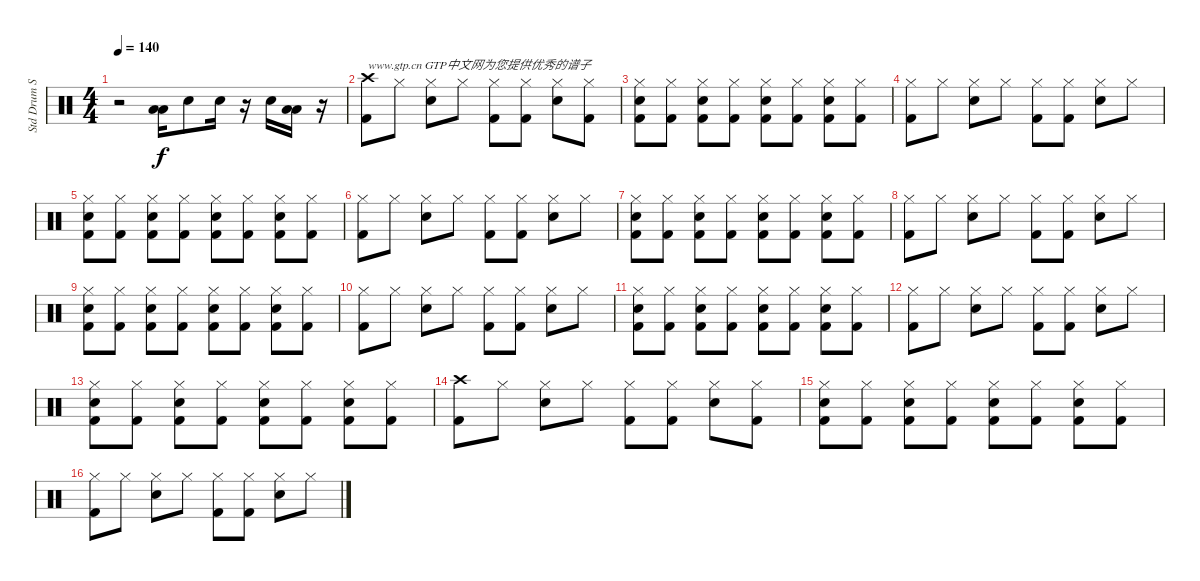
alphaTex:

\track ("Std Drum Set" "Std Drum S") {instrument percussion}
\staff {score}
\articulation defaults
\ts (4 4)
\tempo 140
\clef neutral
\ks c
r.2{dy f} ("Low Floor Tom (hit)" "Low Tom (hit)").16 "Snare (hit) 2".8 "Snare (hit) 2".16 r.16 "Snare (hit) 2".16 ("Low Floor Tom (hit)" "Low Tom (hit)").16 r.16 |
("Kick (hit) 2" "Crash high (hit)").8{txt "www.gtp.cn GTP中文网为您提供优秀的谱子"} "Hi-Hat (closed)".8 ("Snare (hit) 2" "Hi-Hat (closed)").8 "Hi-Hat (closed)".8 ("Kick (hit) 2" "Hi-Hat (closed)").8 ("Kick (hit) 2" "Hi-Hat (closed)").8 ("Hi-Hat (closed)" "Snare (hit) 2").8 ("Hi-Hat (closed)" "Kick (hit) 2").8 |
("Hi-Hat (closed)" "Snare (hit) 2" "Kick (hit) 2").8 ("Kick (hit) 2" "Hi-Hat (closed)").8 ("Kick (hit) 2" "Hi-Hat (closed)" "Snare (hit) 2").8 ("Kick (hit) 2" "Hi-Hat (closed)").8 ("Kick (hit) 2" "Hi-Hat (closed)" "Snare (hit) 2").8 ("Hi-Hat (closed)" "Kick (hit) 2").8 ("Hi-Hat (closed)" "Kick (hit) 2" "Snare (hit) 2").8 ("Hi-Hat (closed)" "Kick (hit) 2").8 |
("Kick (hit) 2" "Hi-Hat (closed)").8 "Hi-Hat (closed)".8 ("Hi-Hat (closed)" "Snare (hit) 2").8 "Hi-Hat (closed)".8 ("Kick (hit) 2" "Hi-Hat (closed)").8 ("Hi-Hat (closed)" "Kick (hit) 2").8 ("Hi-Hat (closed)" "Snare (hit) 2").8 "Hi-Hat (closed)".8 |
("Hi-Hat (closed)" "Kick (hit) 2" "Snare (hit) 2").8 ("Kick (hit) 2" "Hi-Hat (closed)").8 ("Kick (hit) 2" "Hi-Hat (closed)" "Snare (hit) 2").8 ("Kick (hit) 2" "Hi-Hat (closed)").8 ("Kick (hit) 2" "Hi-Hat (closed)" "Snare (hit) 2").8 ("Kick (hit) 2" "Hi-Hat (closed)").8 ("Hi-Hat (closed)" "Snare (hit) 2" "Kick (hit) 2").8 ("Hi-Hat (closed)" "Kick (hit) 2").8 |
("Kick (hit) 2" "Hi-Hat (closed)").8 "Hi-Hat (closed)".8 ("Snare (hit) 2" "Hi-Hat (closed)").8 "Hi-Hat (closed)".8 ("Hi-Hat (closed)" "Kick (hit) 2").8 ("Kick (hit) 2" "Hi-Hat (closed)").8 ("Hi-Hat (closed)" "Snare (hit) 2").8 "Hi-Hat (closed)".8 |
("Kick (hit) 2" "Hi-Hat (closed)" "Snare (hit) 2").8 ("Hi-Hat (closed)" "Kick (hit) 2").8 ("Kick (hit) 2" "Hi-Hat (closed)" "Snare (hit) 2").8 ("Hi-Hat (closed)" "Kick (hit) 2").8 ("Kick (hit) 2" "Hi-Hat (closed)" "Snare (hit) 2").8 ("Kick (hit) 2" "Hi-Hat (closed)").8 ("Snare (hit) 2" "Hi-Hat (closed)" "Kick (hit) 2").8 ("Hi-Hat (closed)" "Kick (hit) 2").8 |
("Hi-Hat (closed)" "Kick (hit) 2").8 "Hi-Hat (closed)".8 ("Hi-Hat (closed)" "Snare (hit) 2").8 "Hi-Hat (closed)".8 ("Kick (hit) 2" "Hi-Hat (closed)").8 ("Kick (hit) 2" "Hi-Hat (closed)").8 ("Hi-Hat (closed)" "Snare (hit) 2").8 "Hi-Hat (closed)".8 |
("Kick (hit) 2" "Hi-Hat (closed)" "Snare (hit) 2").8 ("Hi-Hat (closed)" "Kick (hit) 2").8 ("Kick (hit) 2" "Hi-Hat (closed)" "Snare (hit) 2").8 ("Hi-Hat (closed)" "Kick (hit) 2").8 ("Snare (hit) 2" "Kick (hit) 2" "Hi-Hat (closed)").8 ("Hi-Hat (closed)" "Kick (hit) 2").8 ("Kick (hit) 2" "Hi-Hat (closed)" "Snare (hit) 2").8 ("Hi-Hat (closed)" "Kick (hit) 2").8 |
("Hi-Hat (closed)" "Kick (hit) 2").8 "Hi-Hat (closed)".8 ("Hi-Hat (closed)" "Snare (hit) 2").8 "Hi-Hat (closed)".8 ("Hi-Hat (closed)" "Kick (hit) 2").8 ("Hi-Hat (closed)" "Kick (hit) 2").8 ("Snare (hit) 2" "Hi-Hat (closed)").8 "Hi-Hat (closed)".8 |
("Kick (hit) 2" "Hi-Hat (closed)" "Snare (hit) 2").8 ("Kick (hit) 2" "Hi-Hat (closed)").8 ("Hi-Hat (closed)" "Snare (hit) 2" "Kick (hit) 2").8 ("Kick (hit) 2" "Hi-Hat (closed)").8 ("Hi-Hat (closed)" "Kick (hit) 2" "Snare (hit) 2").8 ("Kick (hit) 2" "Hi-Hat (closed)").8 ("Snare (hit) 2" "Hi-Hat (closed)" "Kick (hit) 2").8 ("Kick (hit) 2" "Hi-Hat (closed)").8 |
("Hi-Hat (closed)" "Kick (hit) 2").8 "Hi-Hat (closed)".8 ("Snare (hit) 2" "Hi-Hat (closed)").8 "Hi-Hat (closed)".8 ("Hi-Hat (closed)" "Kick (hit) 2").8 ("Kick (hit) 2" "Hi-Hat (closed)").8 ("Snare (hit) 2" "Hi-Hat (closed)").8 "Hi-Hat (closed)".8 |
("Kick (hit) 2" "Hi-Hat (closed)" "Snare (hit) 2").8 ("Hi-Hat (closed)" "Kick (hit) 2").8 ("Hi-Hat (closed)" "Kick (hit) 2" "Snare (hit) 2").8 ("Kick (hit) 2" "Hi-Hat (closed)").8 ("Hi-Hat (closed)" "Snare (hit) 2" "Kick (hit) 2").8 ("Hi-Hat (closed)" "Kick (hit) 2").8 ("Hi-Hat (closed)" "Kick (hit) 2" "Snare (hit) 2").8 ("Hi-Hat (closed)" "Kick (hit) 2").8 |
("Crash high (hit)" "Kick (hit) 2").8 "Hi-Hat (closed)".8 ("Snare (hit) 2" "Hi-Hat (closed)").8 "Hi-Hat (closed)".8 ("Hi-Hat (closed)" "Kick (hit) 2").8 ("Hi-Hat (closed)" "Kick (hit) 2").8 ("Snare (hit) 2" "Hi-Hat (closed)").8 ("Hi-Hat (closed)" "Kick (hit) 2").8 |
("Kick (hit) 2" "Snare (hit) 2" "Hi-Hat (closed)").8 ("Hi-Hat (closed)" "Kick (hit) 2").8 ("Kick (hit) 2" "Snare (hit) 2" "Hi-Hat (closed)").8 ("Hi-Hat (closed)" "Kick (hit) 2").8 ("Snare (hit) 2" "Kick (hit) 2" "Hi-Hat (closed)").8 ("Kick (hit) 2" "Hi-Hat (closed)").8 ("Kick (hit) 2" "Snare (hit) 2" "Hi-Hat (closed)").8 ("Kick (hit) 2" "Hi-Hat (closed)").8 |
("Kick (hit) 2" "Hi-Hat (closed)").8 "Hi-Hat (closed)".8 ("Hi-Hat (closed)" "Snare (hit) 2").8 "Hi-Hat (closed)".8 ("Hi-Hat (closed)" "Kick (hit) 2").8 ("Hi-Hat (closed)" "Kick (hit) 2").8 ("Hi-Hat (closed)" "Snare (hit) 2").8 "Hi-Hat (closed)".8
